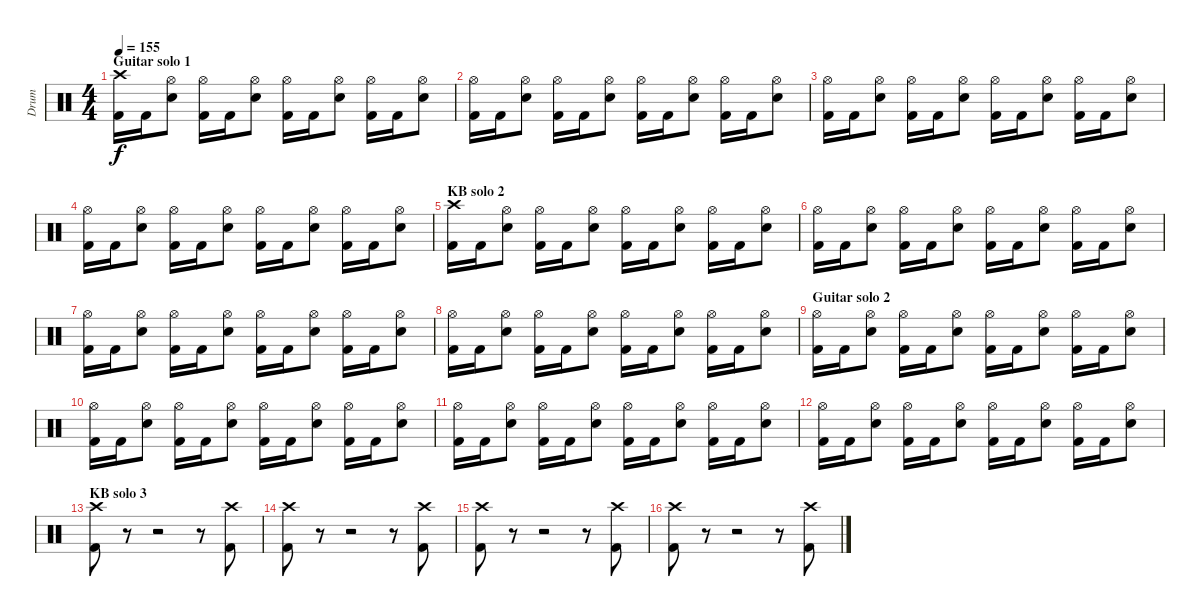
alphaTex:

\track ("Drum" "Drum") {instrument percussion}
\staff {score}
\articulation defaults
\ts (4 4)
\section ("" "Guitar solo 1")
\tempo 155
\clef neutral
\ks c
("Crash high (hit)" "Kick (hit) 2").16{dy f} "Kick (hit) 2".16 ("Hi-Hat (open)" "Electric Snare (hit)").8 ("Hi-Hat (open)" "Kick (hit) 2").16 "Kick (hit) 2".16 ("Hi-Hat (open)" "Electric Snare (hit)").8 ("Hi-Hat (open)" "Kick (hit) 2").16 "Kick (hit) 2".16 ("Hi-Hat (open)" "Electric Snare (hit)").8 ("Hi-Hat (open)" "Kick (hit) 2").16 "Kick (hit) 2".16 ("Hi-Hat (open)" "Electric Snare (hit)").8 |
("Hi-Hat (open)" "Kick (hit) 2").16 "Kick (hit) 2".16 ("Hi-Hat (open)" "Electric Snare (hit)").8 ("Hi-Hat (open)" "Kick (hit) 2").16 "Kick (hit) 2".16 ("Hi-Hat (open)" "Electric Snare (hit)").8 ("Hi-Hat (open)" "Kick (hit) 2").16 "Kick (hit) 2".16 ("Hi-Hat (open)" "Electric Snare (hit)").8 ("Hi-Hat (open)" "Kick (hit) 2").16 "Kick (hit) 2".16 ("Hi-Hat (open)" "Electric Snare (hit)").8 |
("Hi-Hat (open)" "Kick (hit) 2").16 "Kick (hit) 2".16 ("Hi-Hat (open)" "Electric Snare (hit)").8 ("Hi-Hat (open)" "Kick (hit) 2").16 "Kick (hit) 2".16 ("Hi-Hat (open)" "Electric Snare (hit)").8 ("Hi-Hat (open)" "Kick (hit) 2").16 "Kick (hit) 2".16 ("Hi-Hat (open)" "Electric Snare (hit)").8 ("Hi-Hat (open)" "Kick (hit) 2").16 "Kick (hit) 2".16 ("Hi-Hat (open)" "Electric Snare (hit)").8 |
("Hi-Hat (open)" "Kick (hit) 2").16 "Kick (hit) 2".16 ("Hi-Hat (open)" "Electric Snare (hit)").8 ("Hi-Hat (open)" "Kick (hit) 2").16 "Kick (hit) 2".16 ("Hi-Hat (open)" "Electric Snare (hit)").8 ("Hi-Hat (open)" "Kick (hit) 2").16 "Kick (hit) 2".16 ("Hi-Hat (open)" "Electric Snare (hit)").8 ("Hi-Hat (open)" "Kick (hit) 2").16 "Kick (hit) 2".16 ("Hi-Hat (open)" "Electric Snare (hit)").8 |
\section ("" "KB solo 2")
("Crash high (hit)" "Kick (hit) 2").16 "Kick (hit) 2".16 ("Hi-Hat (open)" "Electric Snare (hit)").8 ("Hi-Hat (open)" "Kick (hit) 2").16 "Kick (hit) 2".16 ("Hi-Hat (open)" "Electric Snare (hit)").8 ("Hi-Hat (open)" "Kick (hit) 2").16 "Kick (hit) 2".16 ("Hi-Hat (open)" "Electric Snare (hit)").8 ("Hi-Hat (open)" "Kick (hit) 2").16 "Kick (hit) 2".16 ("Hi-Hat (open)" "Electric Snare (hit)").8 |
("Hi-Hat (open)" "Kick (hit) 2").16 "Kick (hit) 2".16 ("Hi-Hat (open)" "Electric Snare (hit)").8 ("Hi-Hat (open)" "Kick (hit) 2").16 "Kick (hit) 2".16 ("Hi-Hat (open)" "Electric Snare (hit)").8 ("Hi-Hat (open)" "Kick (hit) 2").16 "Kick (hit) 2".16 ("Hi-Hat (open)" "Electric Snare (hit)").8 ("Hi-Hat (open)" "Kick (hit) 2").16 "Kick (hit) 2".16 ("Hi-Hat (open)" "Electric Snare (hit)").8 |
("Hi-Hat (open)" "Kick (hit) 2").16 "Kick (hit) 2".16 ("Hi-Hat (open)" "Electric Snare (hit)").8 ("Hi-Hat (open)" "Kick (hit) 2").16 "Kick (hit) 2".16 ("Hi-Hat (open)" "Electric Snare (hit)").8 ("Hi-Hat (open)" "Kick (hit) 2").16 "Kick (hit) 2".16 ("Hi-Hat (open)" "Electric Snare (hit)").8 ("Hi-Hat (open)" "Kick (hit) 2").16 "Kick (hit) 2".16 ("Hi-Hat (open)" "Electric Snare (hit)").8 |
("Hi-Hat (open)" "Kick (hit) 2").16 "Kick (hit) 2".16 ("Hi-Hat (open)" "Electric Snare (hit)").8 ("Hi-Hat (open)" "Kick (hit) 2").16 "Kick (hit) 2".16 ("Hi-Hat (open)" "Electric Snare (hit)").8 ("Hi-Hat (open)" "Kick (hit) 2").16 "Kick (hit) 2".16 ("Hi-Hat (open)" "Electric Snare (hit)").8 ("Hi-Hat (open)" "Kick (hit) 2").16 "Kick (hit) 2".16 ("Hi-Hat (open)" "Electric Snare (hit)").8 |
\section ("" "Guitar solo 2")
("Hi-Hat (open)" "Kick (hit) 2").16 "Kick (hit) 2".16 ("Hi-Hat (open)" "Electric Snare (hit)").8 ("Hi-Hat (open)" "Kick (hit) 2").16 "Kick (hit) 2".16 ("Hi-Hat (open)" "Electric Snare (hit)").8 ("Hi-Hat (open)" "Kick (hit) 2").16 "Kick (hit) 2".16 ("Hi-Hat (open)" "Electric Snare (hit)").8 ("Hi-Hat (open)" "Kick (hit) 2").16 "Kick (hit) 2".16 ("Hi-Hat (open)" "Electric Snare (hit)").8 |
("Hi-Hat (open)" "Kick (hit) 2").16 "Kick (hit) 2".16 ("Hi-Hat (open)" "Electric Snare (hit)").8 ("Hi-Hat (open)" "Kick (hit) 2").16 "Kick (hit) 2".16 ("Hi-Hat (open)" "Electric Snare (hit)").8 ("Hi-Hat (open)" "Kick (hit) 2").16 "Kick (hit) 2".16 ("Hi-Hat (open)" "Electric Snare (hit)").8 ("Hi-Hat (open)" "Kick (hit) 2").16 "Kick (hit) 2".16 ("Hi-Hat (open)" "Electric Snare (hit)").8 |
("Hi-Hat (open)" "Kick (hit) 2").16 "Kick (hit) 2".16 ("Hi-Hat (open)" "Electric Snare (hit)").8 ("Hi-Hat (open)" "Kick (hit) 2").16 "Kick (hit) 2".16 ("Hi-Hat (open)" "Electric Snare (hit)").8 ("Hi-Hat (open)" "Kick (hit) 2").16 "Kick (hit) 2".16 ("Hi-Hat (open)" "Electric Snare (hit)").8 ("Hi-Hat (open)" "Kick (hit) 2").16 "Kick (hit) 2".16 ("Hi-Hat (open)" "Electric Snare (hit)").8 |
("Hi-Hat (open)" "Kick (hit) 2").16 "Kick (hit) 2".16 ("Hi-Hat (open)" "Electric Snare (hit)").8 ("Hi-Hat (open)" "Kick (hit) 2").16 "Kick (hit) 2".16 ("Hi-Hat (open)" "Electric Snare (hit)").8 ("Hi-Hat (open)" "Kick (hit) 2").16 "Kick (hit) 2".16 ("Hi-Hat (open)" "Electric Snare (hit)").8 ("Hi-Hat (open)" "Kick (hit) 2").16 "Kick (hit) 2".16 ("Hi-Hat (open)" "Electric Snare (hit)").8 |
\section ("" "KB solo 3")
("Crash high (hit)" "Kick (hit) 2").8 r.8 r.2 r.8 ("Crash high (hit)" "Kick (hit) 2").8 |
("Crash high (hit)" "Kick (hit) 2").8 r.8 r.2 r.8 ("Crash high (hit)" "Kick (hit) 2").8 |
("Crash high (hit)" "Kick (hit) 2").8 r.8 r.2 r.8 ("Crash high (hit)" "Kick (hit) 2").8 |
("Crash high (hit)" "Kick (hit) 2").8 r.8 r.2 r.8 ("Crash high (hit)" "Kick (hit) 2").8
